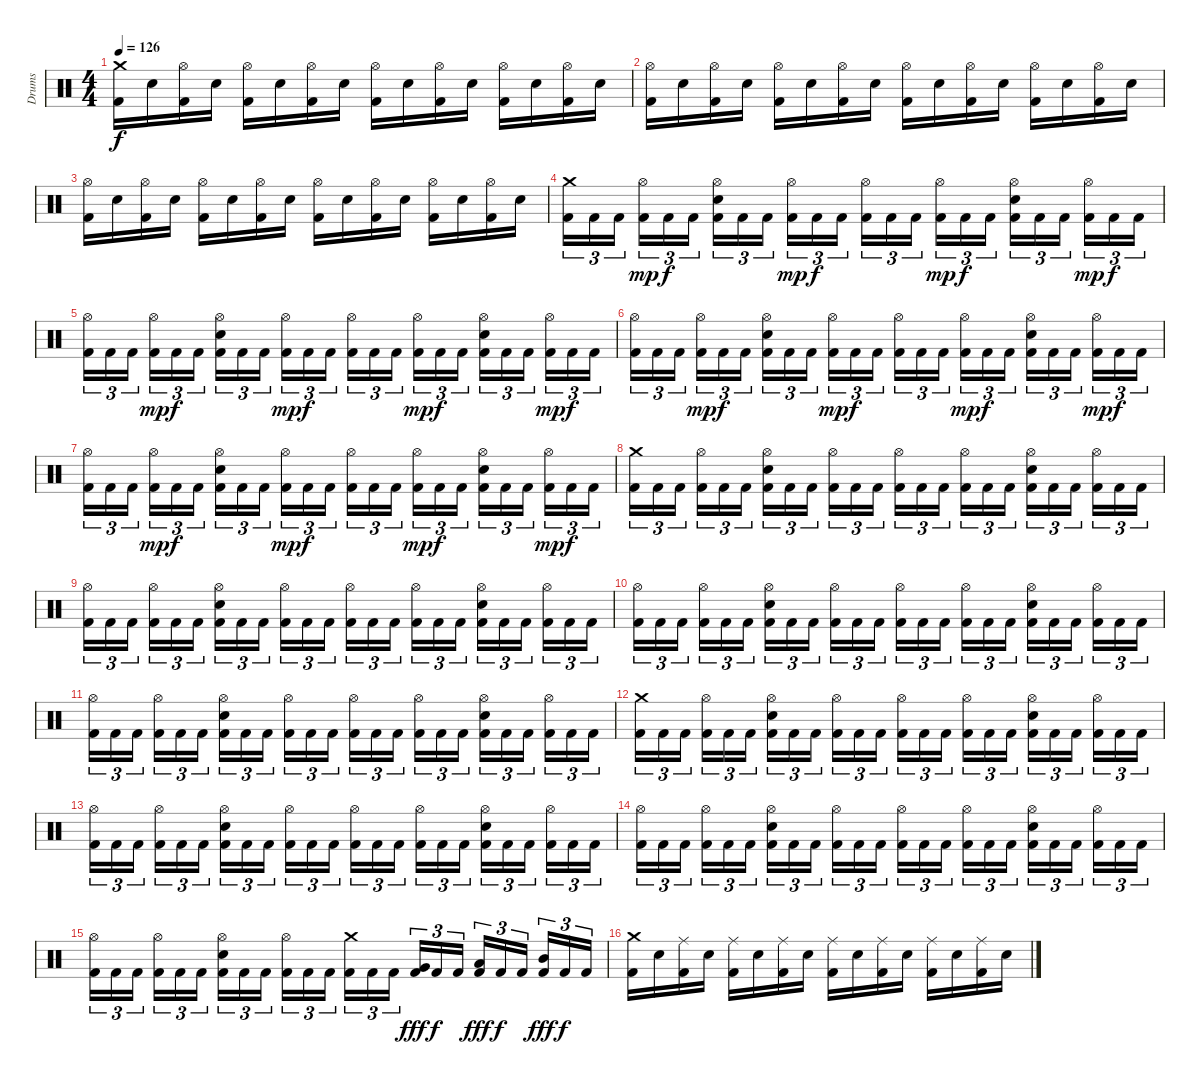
\track ("Drums" "Drums") {instrument percussion}
\staff {score}
\articulation defaults
\ts (4 4)
\tempo 126
\clef neutral
\ks c
("Kick (hit) 2" "Crash medium (hit)").16{dy f} "Electric Snare (hit)".16 ("Kick (hit) 2" "Hi-Hat (open)").16 "Electric Snare (hit)".16 ("Kick (hit) 2" "Hi-Hat (open)").16 "Electric Snare (hit)".16 ("Kick (hit) 2" "Hi-Hat (open)").16 "Electric Snare (hit)".16 ("Kick (hit) 2" "Hi-Hat (open)").16 "Electric Snare (hit)".16 ("Kick (hit) 2" "Hi-Hat (open)").16 "Electric Snare (hit)".16 ("Kick (hit) 2" "Hi-Hat (open)").16 "Electric Snare (hit)".16 ("Kick (hit) 2" "Hi-Hat (open)").16 "Electric Snare (hit)".16 |
("Kick (hit) 2" "Hi-Hat (open)").16 "Electric Snare (hit)".16 ("Kick (hit) 2" "Hi-Hat (open)").16 "Electric Snare (hit)".16 ("Kick (hit) 2" "Hi-Hat (open)").16 "Electric Snare (hit)".16 ("Kick (hit) 2" "Hi-Hat (open)").16 "Electric Snare (hit)".16 ("Kick (hit) 2" "Hi-Hat (open)").16 "Electric Snare (hit)".16 ("Kick (hit) 2" "Hi-Hat (open)").16 "Electric Snare (hit)".16 ("Kick (hit) 2" "Hi-Hat (open)").16 "Electric Snare (hit)".16 ("Kick (hit) 2" "Hi-Hat (open)").16 "Electric Snare (hit)".16 |
("Kick (hit) 2" "Hi-Hat (open)").16 "Electric Snare (hit)".16 ("Kick (hit) 2" "Hi-Hat (open)").16 "Electric Snare (hit)".16 ("Kick (hit) 2" "Hi-Hat (open)").16 "Electric Snare (hit)".16 ("Kick (hit) 2" "Hi-Hat (open)").16 "Electric Snare (hit)".16 ("Kick (hit) 2" "Hi-Hat (open)").16 "Electric Snare (hit)".16 ("Kick (hit) 2" "Hi-Hat (open)").16 "Electric Snare (hit)".16 ("Kick (hit) 2" "Hi-Hat (open)").16 "Electric Snare (hit)".16 ("Kick (hit) 2" "Hi-Hat (open)").16 "Electric Snare (hit)".16 |
("Kick (hit) 2" "Crash medium (hit)").16{tu (3 2)} "Kick (hit) 2".16{tu (3 2)} "Kick (hit) 2".16{tu (3 2)} ("Kick (hit) 2" "Hi-Hat (open)").16{tu (3 2) dy mp} "Kick (hit) 2".16{tu (3 2) dy f} "Kick (hit) 2".16{tu (3 2)} ("Kick (hit) 2" "Electric Snare (hit)" "Hi-Hat (open)").16{tu (3 2)} "Kick (hit) 2".16{tu (3 2)} "Kick (hit) 2".16{tu (3 2)} ("Kick (hit) 2" "Hi-Hat (open)").16{tu (3 2) dy mp} "Kick (hit) 2".16{tu (3 2) dy f} "Kick (hit) 2".16{tu (3 2)} ("Kick (hit) 2" "Hi-Hat (open)").16{tu (3 2)} "Kick (hit) 2".16{tu (3 2)} "Kick (hit) 2".16{tu (3 2)} ("Kick (hit) 2" "Hi-Hat (open)").16{tu (3 2) dy mp} "Kick (hit) 2".16{tu (3 2) dy f} "Kick (hit) 2".16{tu (3 2)} ("Kick (hit) 2" "Electric Snare (hit)" "Hi-Hat (open)").16{tu (3 2)} "Kick (hit) 2".16{tu (3 2)} "Kick (hit) 2".16{tu (3 2)} ("Kick (hit) 2" "Hi-Hat (open)").16{tu (3 2) dy mp} "Kick (hit) 2".16{tu (3 2) dy f} "Kick (hit) 2".16{tu (3 2)} |
("Kick (hit) 2" "Hi-Hat (open)").16{tu (3 2)} "Kick (hit) 2".16{tu (3 2)} "Kick (hit) 2".16{tu (3 2)} ("Kick (hit) 2" "Hi-Hat (open)").16{tu (3 2) dy mp} "Kick (hit) 2".16{tu (3 2) dy f} "Kick (hit) 2".16{tu (3 2)} ("Kick (hit) 2" "Electric Snare (hit)" "Hi-Hat (open)").16{tu (3 2)} "Kick (hit) 2".16{tu (3 2)} "Kick (hit) 2".16{tu (3 2)} ("Kick (hit) 2" "Hi-Hat (open)").16{tu (3 2) dy mp} "Kick (hit) 2".16{tu (3 2) dy f} "Kick (hit) 2".16{tu (3 2)} ("Kick (hit) 2" "Hi-Hat (open)").16{tu (3 2)} "Kick (hit) 2".16{tu (3 2)} "Kick (hit) 2".16{tu (3 2)} ("Kick (hit) 2" "Hi-Hat (open)").16{tu (3 2) dy mp} "Kick (hit) 2".16{tu (3 2) dy f} "Kick (hit) 2".16{tu (3 2)} ("Kick (hit) 2" "Electric Snare (hit)" "Hi-Hat (open)").16{tu (3 2)} "Kick (hit) 2".16{tu (3 2)} "Kick (hit) 2".16{tu (3 2)} ("Kick (hit) 2" "Hi-Hat (open)").16{tu (3 2) dy mp} "Kick (hit) 2".16{tu (3 2) dy f} "Kick (hit) 2".16{tu (3 2)} |
("Kick (hit) 2" "Hi-Hat (open)").16{tu (3 2)} "Kick (hit) 2".16{tu (3 2)} "Kick (hit) 2".16{tu (3 2)} ("Kick (hit) 2" "Hi-Hat (open)").16{tu (3 2) dy mp} "Kick (hit) 2".16{tu (3 2) dy f} "Kick (hit) 2".16{tu (3 2)} ("Kick (hit) 2" "Electric Snare (hit)" "Hi-Hat (open)").16{tu (3 2)} "Kick (hit) 2".16{tu (3 2)} "Kick (hit) 2".16{tu (3 2)} ("Kick (hit) 2" "Hi-Hat (open)").16{tu (3 2) dy mp} "Kick (hit) 2".16{tu (3 2) dy f} "Kick (hit) 2".16{tu (3 2)} ("Kick (hit) 2" "Hi-Hat (open)").16{tu (3 2)} "Kick (hit) 2".16{tu (3 2)} "Kick (hit) 2".16{tu (3 2)} ("Kick (hit) 2" "Hi-Hat (open)").16{tu (3 2) dy mp} "Kick (hit) 2".16{tu (3 2) dy f} "Kick (hit) 2".16{tu (3 2)} ("Kick (hit) 2" "Electric Snare (hit)" "Hi-Hat (open)").16{tu (3 2)} "Kick (hit) 2".16{tu (3 2)} "Kick (hit) 2".16{tu (3 2)} ("Kick (hit) 2" "Hi-Hat (open)").16{tu (3 2) dy mp} "Kick (hit) 2".16{tu (3 2) dy f} "Kick (hit) 2".16{tu (3 2)} |
("Kick (hit) 2" "Hi-Hat (open)").16{tu (3 2)} "Kick (hit) 2".16{tu (3 2)} "Kick (hit) 2".16{tu (3 2)} ("Kick (hit) 2" "Hi-Hat (open)").16{tu (3 2) dy mp} "Kick (hit) 2".16{tu (3 2) dy f} "Kick (hit) 2".16{tu (3 2)} ("Kick (hit) 2" "Electric Snare (hit)" "Hi-Hat (open)").16{tu (3 2)} "Kick (hit) 2".16{tu (3 2)} "Kick (hit) 2".16{tu (3 2)} ("Kick (hit) 2" "Hi-Hat (open)").16{tu (3 2) dy mp} "Kick (hit) 2".16{tu (3 2) dy f} "Kick (hit) 2".16{tu (3 2)} ("Kick (hit) 2" "Hi-Hat (open)").16{tu (3 2)} "Kick (hit) 2".16{tu (3 2)} "Kick (hit) 2".16{tu (3 2)} ("Kick (hit) 2" "Hi-Hat (open)").16{tu (3 2) dy mp} "Kick (hit) 2".16{tu (3 2) dy f} "Kick (hit) 2".16{tu (3 2)} ("Kick (hit) 2" "Electric Snare (hit)" "Hi-Hat (open)").16{tu (3 2)} "Kick (hit) 2".16{tu (3 2)} "Kick (hit) 2".16{tu (3 2)} ("Kick (hit) 2" "Hi-Hat (open)").16{tu (3 2) dy mp} "Kick (hit) 2".16{tu (3 2) dy f} "Kick (hit) 2".16{tu (3 2)} |
("Kick (hit) 2" "Crash medium (hit)").16{tu (3 2)} "Kick (hit) 2".16{tu (3 2)} "Kick (hit) 2".16{tu (3 2)} ("Kick (hit) 2" "Hi-Hat (open)").16{tu (3 2)} "Kick (hit) 2".16{tu (3 2)} "Kick (hit) 2".16{tu (3 2)} ("Kick (hit) 2" "Electric Snare (hit)" "Hi-Hat (open)").16{tu (3 2)} "Kick (hit) 2".16{tu (3 2)} "Kick (hit) 2".16{tu (3 2)} ("Kick (hit) 2" "Hi-Hat (open)").16{tu (3 2)} "Kick (hit) 2".16{tu (3 2)} "Kick (hit) 2".16{tu (3 2)} ("Kick (hit) 2" "Hi-Hat (open)").16{tu (3 2)} "Kick (hit) 2".16{tu (3 2)} "Kick (hit) 2".16{tu (3 2)} ("Kick (hit) 2" "Hi-Hat (open)").16{tu (3 2)} "Kick (hit) 2".16{tu (3 2)} "Kick (hit) 2".16{tu (3 2)} ("Kick (hit) 2" "Electric Snare (hit)" "Hi-Hat (open)").16{tu (3 2)} "Kick (hit) 2".16{tu (3 2)} "Kick (hit) 2".16{tu (3 2)} ("Kick (hit) 2" "Hi-Hat (open)").16{tu (3 2)} "Kick (hit) 2".16{tu (3 2)} "Kick (hit) 2".16{tu (3 2)} |
("Kick (hit) 2" "Hi-Hat (open)").16{tu (3 2)} "Kick (hit) 2".16{tu (3 2)} "Kick (hit) 2".16{tu (3 2)} ("Kick (hit) 2" "Hi-Hat (open)").16{tu (3 2)} "Kick (hit) 2".16{tu (3 2)} "Kick (hit) 2".16{tu (3 2)} ("Kick (hit) 2" "Electric Snare (hit)" "Hi-Hat (open)").16{tu (3 2)} "Kick (hit) 2".16{tu (3 2)} "Kick (hit) 2".16{tu (3 2)} ("Kick (hit) 2" "Hi-Hat (open)").16{tu (3 2)} "Kick (hit) 2".16{tu (3 2)} "Kick (hit) 2".16{tu (3 2)} ("Kick (hit) 2" "Hi-Hat (open)").16{tu (3 2)} "Kick (hit) 2".16{tu (3 2)} "Kick (hit) 2".16{tu (3 2)} ("Kick (hit) 2" "Hi-Hat (open)").16{tu (3 2)} "Kick (hit) 2".16{tu (3 2)} "Kick (hit) 2".16{tu (3 2)} ("Kick (hit) 2" "Electric Snare (hit)" "Hi-Hat (open)").16{tu (3 2)} "Kick (hit) 2".16{tu (3 2)} "Kick (hit) 2".16{tu (3 2)} ("Kick (hit) 2" "Hi-Hat (open)").16{tu (3 2)} "Kick (hit) 2".16{tu (3 2)} "Kick (hit) 2".16{tu (3 2)} |
("Kick (hit) 2" "Hi-Hat (open)").16{tu (3 2)} "Kick (hit) 2".16{tu (3 2)} "Kick (hit) 2".16{tu (3 2)} ("Kick (hit) 2" "Hi-Hat (open)").16{tu (3 2)} "Kick (hit) 2".16{tu (3 2)} "Kick (hit) 2".16{tu (3 2)} ("Kick (hit) 2" "Electric Snare (hit)" "Hi-Hat (open)").16{tu (3 2)} "Kick (hit) 2".16{tu (3 2)} "Kick (hit) 2".16{tu (3 2)} ("Kick (hit) 2" "Hi-Hat (open)").16{tu (3 2)} "Kick (hit) 2".16{tu (3 2)} "Kick (hit) 2".16{tu (3 2)} ("Kick (hit) 2" "Hi-Hat (open)").16{tu (3 2)} "Kick (hit) 2".16{tu (3 2)} "Kick (hit) 2".16{tu (3 2)} ("Kick (hit) 2" "Hi-Hat (open)").16{tu (3 2)} "Kick (hit) 2".16{tu (3 2)} "Kick (hit) 2".16{tu (3 2)} ("Kick (hit) 2" "Electric Snare (hit)" "Hi-Hat (open)").16{tu (3 2)} "Kick (hit) 2".16{tu (3 2)} "Kick (hit) 2".16{tu (3 2)} ("Kick (hit) 2" "Hi-Hat (open)").16{tu (3 2)} "Kick (hit) 2".16{tu (3 2)} "Kick (hit) 2".16{tu (3 2)} |
("Kick (hit) 2" "Hi-Hat (open)").16{tu (3 2)} "Kick (hit) 2".16{tu (3 2)} "Kick (hit) 2".16{tu (3 2)} ("Kick (hit) 2" "Hi-Hat (open)").16{tu (3 2)} "Kick (hit) 2".16{tu (3 2)} "Kick (hit) 2".16{tu (3 2)} ("Kick (hit) 2" "Electric Snare (hit)" "Hi-Hat (open)").16{tu (3 2)} "Kick (hit) 2".16{tu (3 2)} "Kick (hit) 2".16{tu (3 2)} ("Kick (hit) 2" "Hi-Hat (open)").16{tu (3 2)} "Kick (hit) 2".16{tu (3 2)} "Kick (hit) 2".16{tu (3 2)} ("Kick (hit) 2" "Hi-Hat (open)").16{tu (3 2)} "Kick (hit) 2".16{tu (3 2)} "Kick (hit) 2".16{tu (3 2)} ("Kick (hit) 2" "Hi-Hat (open)").16{tu (3 2)} "Kick (hit) 2".16{tu (3 2)} "Kick (hit) 2".16{tu (3 2)} ("Kick (hit) 2" "Electric Snare (hit)" "Hi-Hat (open)").16{tu (3 2)} "Kick (hit) 2".16{tu (3 2)} "Kick (hit) 2".16{tu (3 2)} ("Kick (hit) 2" "Hi-Hat (open)").16{tu (3 2)} "Kick (hit) 2".16{tu (3 2)} "Kick (hit) 2".16{tu (3 2)} |
("Kick (hit) 2" "Crash medium (hit)").16{tu (3 2)} "Kick (hit) 2".16{tu (3 2)} "Kick (hit) 2".16{tu (3 2)} ("Kick (hit) 2" "Hi-Hat (open)").16{tu (3 2)} "Kick (hit) 2".16{tu (3 2)} "Kick (hit) 2".16{tu (3 2)} ("Kick (hit) 2" "Electric Snare (hit)" "Hi-Hat (open)").16{tu (3 2)} "Kick (hit) 2".16{tu (3 2)} "Kick (hit) 2".16{tu (3 2)} ("Kick (hit) 2" "Hi-Hat (open)").16{tu (3 2)} "Kick (hit) 2".16{tu (3 2)} "Kick (hit) 2".16{tu (3 2)} ("Kick (hit) 2" "Hi-Hat (open)").16{tu (3 2)} "Kick (hit) 2".16{tu (3 2)} "Kick (hit) 2".16{tu (3 2)} ("Kick (hit) 2" "Hi-Hat (open)").16{tu (3 2)} "Kick (hit) 2".16{tu (3 2)} "Kick (hit) 2".16{tu (3 2)} ("Kick (hit) 2" "Electric Snare (hit)" "Hi-Hat (open)").16{tu (3 2)} "Kick (hit) 2".16{tu (3 2)} "Kick (hit) 2".16{tu (3 2)} ("Kick (hit) 2" "Hi-Hat (open)").16{tu (3 2)} "Kick (hit) 2".16{tu (3 2)} "Kick (hit) 2".16{tu (3 2)} |
("Kick (hit) 2" "Hi-Hat (open)").16{tu (3 2)} "Kick (hit) 2".16{tu (3 2)} "Kick (hit) 2".16{tu (3 2)} ("Kick (hit) 2" "Hi-Hat (open)").16{tu (3 2)} "Kick (hit) 2".16{tu (3 2)} "Kick (hit) 2".16{tu (3 2)} ("Kick (hit) 2" "Electric Snare (hit)" "Hi-Hat (open)").16{tu (3 2)} "Kick (hit) 2".16{tu (3 2)} "Kick (hit) 2".16{tu (3 2)} ("Kick (hit) 2" "Hi-Hat (open)").16{tu (3 2)} "Kick (hit) 2".16{tu (3 2)} "Kick (hit) 2".16{tu (3 2)} ("Kick (hit) 2" "Hi-Hat (open)").16{tu (3 2)} "Kick (hit) 2".16{tu (3 2)} "Kick (hit) 2".16{tu (3 2)} ("Kick (hit) 2" "Hi-Hat (open)").16{tu (3 2)} "Kick (hit) 2".16{tu (3 2)} "Kick (hit) 2".16{tu (3 2)} ("Kick (hit) 2" "Electric Snare (hit)" "Hi-Hat (open)").16{tu (3 2)} "Kick (hit) 2".16{tu (3 2)} "Kick (hit) 2".16{tu (3 2)} ("Kick (hit) 2" "Hi-Hat (open)").16{tu (3 2)} "Kick (hit) 2".16{tu (3 2)} "Kick (hit) 2".16{tu (3 2)} |
("Kick (hit) 2" "Hi-Hat (open)").16{tu (3 2)} "Kick (hit) 2".16{tu (3 2)} "Kick (hit) 2".16{tu (3 2)} ("Kick (hit) 2" "Hi-Hat (open)").16{tu (3 2)} "Kick (hit) 2".16{tu (3 2)} "Kick (hit) 2".16{tu (3 2)} ("Kick (hit) 2" "Electric Snare (hit)" "Hi-Hat (open)").16{tu (3 2)} "Kick (hit) 2".16{tu (3 2)} "Kick (hit) 2".16{tu (3 2)} ("Kick (hit) 2" "Hi-Hat (open)").16{tu (3 2)} "Kick (hit) 2".16{tu (3 2)} "Kick (hit) 2".16{tu (3 2)} ("Kick (hit) 2" "Hi-Hat (open)").16{tu (3 2)} "Kick (hit) 2".16{tu (3 2)} "Kick (hit) 2".16{tu (3 2)} ("Kick (hit) 2" "Hi-Hat (open)").16{tu (3 2)} "Kick (hit) 2".16{tu (3 2)} "Kick (hit) 2".16{tu (3 2)} ("Kick (hit) 2" "Electric Snare (hit)" "Hi-Hat (open)").16{tu (3 2)} "Kick (hit) 2".16{tu (3 2)} "Kick (hit) 2".16{tu (3 2)} ("Kick (hit) 2" "Hi-Hat (open)").16{tu (3 2)} "Kick (hit) 2".16{tu (3 2)} "Kick (hit) 2".16{tu (3 2)} |
("Kick (hit) 2" "Hi-Hat (open)").16{tu (3 2)} "Kick (hit) 2".16{tu (3 2)} "Kick (hit) 2".16{tu (3 2)} ("Kick (hit) 2" "Hi-Hat (open)").16{tu (3 2)} "Kick (hit) 2".16{tu (3 2)} "Kick (hit) 2".16{tu (3 2)} ("Kick (hit) 2" "Electric Snare (hit)" "Hi-Hat (open)").16{tu (3 2)} "Kick (hit) 2".16{tu (3 2)} "Kick (hit) 2".16{tu (3 2)} ("Kick (hit) 2" "Hi-Hat (open)").16{tu (3 2)} "Kick (hit) 2".16{tu (3 2)} "Kick (hit) 2".16{tu (3 2)} ("Kick (hit) 2" "Crash medium (hit)").16{tu (3 2)} "Kick (hit) 2".16{tu (3 2)} "Kick (hit) 2".16{tu (3 2)} ("Kick (hit) 2" "Very Low Tom (hit)").16{tu (3 2) dy fff} "Kick (hit) 2".16{tu (3 2) dy f} "Kick (hit) 2".16{tu (3 2)} ("Kick (hit) 2" "Low Tom (hit)").16{tu (3 2) dy fff} "Kick (hit) 2".16{tu (3 2) dy f} "Kick (hit) 2".16{tu (3 2)} ("Kick (hit) 2" "Mid Tom (hit)").16{tu (3 2) dy fff} "Kick (hit) 2".16{tu (3 2) dy f} "Kick (hit) 2".16{tu (3 2)} |
("Kick (hit) 2" "Crash medium (hit)").16 "Electric Snare (hit)".16 ("Kick (hit) 2" "Ride (middle)").16 "Electric Snare (hit)".16 ("Kick (hit) 2" "Ride (middle)").16 "Electric Snare (hit)".16 ("Kick (hit) 2" "Ride (middle)").16 "Electric Snare (hit)".16 ("Kick (hit) 2" "Ride (middle)").16 "Electric Snare (hit)".16 ("Kick (hit) 2" "Ride (middle)").16 "Electric Snare (hit)".16 ("Kick (hit) 2" "Ride (middle)").16 "Electric Snare (hit)".16 ("Kick (hit) 2" "Ride (middle)").16 "Electric Snare (hit)".16
